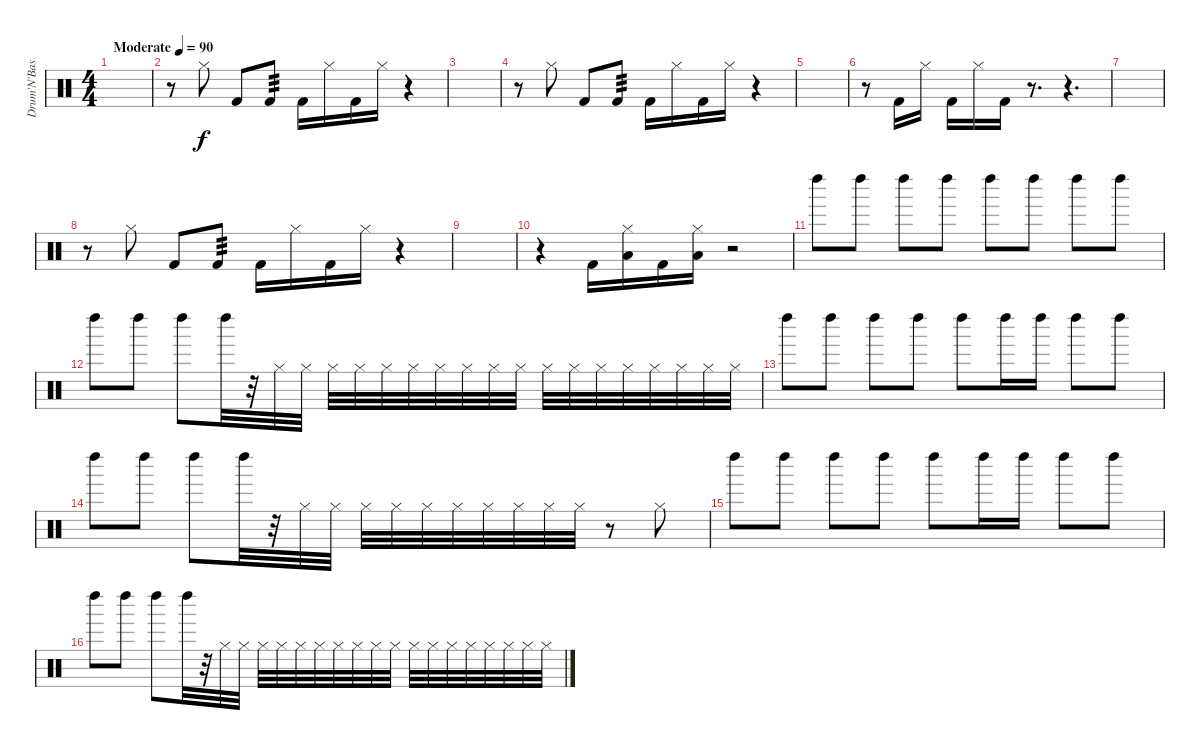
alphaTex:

\track ("Drum'N'Base Effects" "Drum'N'Bas") {instrument percussion}
\staff {score}
\articulation defaults
\ts (4 4)
\tempo (90 "Moderate")
\clef neutral
\ks c
|
r.8 "Hi-Hat (closed)".8 "Kick (hit) 2".8 "Kick (hit) 2".8{tp 3} "Kick (hit) 2".16 "Hi-Hat (closed)".16 "Kick (hit) 2".16 "Hi-Hat (closed)".16 r.4 |
|
r.8 "Hi-Hat (closed)".8 "Kick (hit) 2".8 "Kick (hit) 2".8{tp 3} "Kick (hit) 2".16 "Hi-Hat (closed)".16 "Kick (hit) 2".16 "Hi-Hat (closed)".16 r.4 |
|
r.8 "Kick (hit) 2".16 "Hi-Hat (closed)".16 "Kick (hit) 2".16 "Hi-Hat (closed)".16 "Kick (hit) 2".16 r.8{d} r.4{d} |
|
r.8 "Hi-Hat (closed)".8 "Kick (hit) 2".8 "Kick (hit) 2".8{tp 3} "Kick (hit) 2".16 "Hi-Hat (closed)".16 "Kick (hit) 2".16 "Hi-Hat (closed)".16 r.4 |
|
r.4 "Kick (hit) 2".16 ("Hi-Hat (closed)" "Low Floor Tom (hit)").16 "Kick (hit) 2".16 ("Hi-Hat (closed)" "Low Floor Tom (hit)").16 r.2 |
"Left Maraca (hit)".8 "Left Maraca (hit)".8 "Left Maraca (hit)".8 "Left Maraca (hit)".8 "Left Maraca (hit)".8 "Left Maraca (hit)".8 "Left Maraca (hit)".8 "Left Maraca (hit)".8 |
"Left Maraca (hit)".8 "Left Maraca (hit)".8 "Left Maraca (hit)".8 "Left Maraca (hit)".32 r.32 "Hi-Hat (closed)".32 "Hi-Hat (closed)".32 "Hi-Hat (closed)".32 "Hi-Hat (closed)".32 "Hi-Hat (closed)".32 "Hi-Hat (closed)".32 "Hi-Hat (closed)".32 "Hi-Hat (closed)".32 "Hi-Hat (closed)".32 "Hi-Hat (closed)".32 "Hi-Hat (closed)".32 "Hi-Hat (closed)".32 "Hi-Hat (closed)".32 "Hi-Hat (closed)".32 "Hi-Hat (closed)".32 "Hi-Hat (closed)".32 "Hi-Hat (closed)".32 "Hi-Hat (closed)".32 |
"Left Maraca (hit)".8 "Left Maraca (hit)".8 "Left Maraca (hit)".8 "Left Maraca (hit)".8 "Left Maraca (hit)".8 "Left Maraca (hit)".16 "Left Maraca (hit)".16 "Left Maraca (hit)".8 "Left Maraca (hit)".8 |
"Left Maraca (hit)".8 "Left Maraca (hit)".8 "Left Maraca (hit)".8 "Left Maraca (hit)".32 r.32 "Hi-Hat (closed)".32 "Hi-Hat (closed)".32 "Hi-Hat (closed)".32 "Hi-Hat (closed)".32 "Hi-Hat (closed)".32 "Hi-Hat (closed)".32 "Hi-Hat (closed)".32 "Hi-Hat (closed)".32 "Hi-Hat (closed)".32 "Hi-Hat (closed)".32 r.8 "Hi-Hat (closed)".8 |
"Left Maraca (hit)".8 "Left Maraca (hit)".8 "Left Maraca (hit)".8 "Left Maraca (hit)".8 "Left Maraca (hit)".8 "Left Maraca (hit)".16 "Left Maraca (hit)".16 "Left Maraca (hit)".8 "Left Maraca (hit)".8 |
"Left Maraca (hit)".8 "Left Maraca (hit)".8 "Left Maraca (hit)".8 "Left Maraca (hit)".32 r.32 "Hi-Hat (closed)".32 "Hi-Hat (closed)".32 "Hi-Hat (closed)".32 "Hi-Hat (closed)".32 "Hi-Hat (closed)".32 "Hi-Hat (closed)".32 "Hi-Hat (closed)".32 "Hi-Hat (closed)".32 "Hi-Hat (closed)".32 "Hi-Hat (closed)".32 "Hi-Hat (closed)".32 "Hi-Hat (closed)".32 "Hi-Hat (closed)".32 "Hi-Hat (closed)".32 "Hi-Hat (closed)".32 "Hi-Hat (closed)".32 "Hi-Hat (closed)".32 "Hi-Hat (closed)".32
